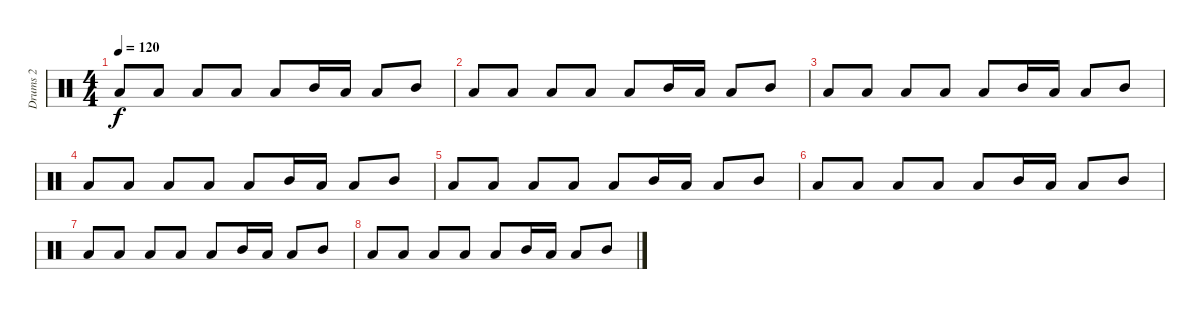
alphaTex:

\track ("Drums 2" "Drums 2") {instrument percussion}
\staff {score}
\articulation defaults
\ts (4 4)
\tempo 120
\clef neutral
\ks c "Low Tom (hit)".8{dy f} "Low Tom (hit)".8 "Low Tom (hit)".8 "Low Tom (hit)".8 "Low Tom (hit)".8 "Mid Tom (hit)".16 "Low Tom (hit)".16 "Low Tom (hit)".8 "Mid Tom (hit)".8
|
"Low Tom (hit)".8 "Low Tom (hit)".8 "Low Tom (hit)".8 "Low Tom (hit)".8 "Low Tom (hit)".8 "Mid Tom (hit)".16 "Low Tom (hit)".16 "Low Tom (hit)".8 "Mid Tom (hit)".8 |
"Low Tom (hit)".8 "Low Tom (hit)".8 "Low Tom (hit)".8 "Low Tom (hit)".8 "Low Tom (hit)".8 "Mid Tom (hit)".16 "Low Tom (hit)".16 "Low Tom (hit)".8 "Mid Tom (hit)".8 |
"Low Tom (hit)".8 "Low Tom (hit)".8 "Low Tom (hit)".8 "Low Tom (hit)".8 "Low Tom (hit)".8 "Mid Tom (hit)".16 "Low Tom (hit)".16 "Low Tom (hit)".8 "Mid Tom (hit)".8 |
"Low Tom (hit)".8 "Low Tom (hit)".8 "Low Tom (hit)".8 "Low Tom (hit)".8 "Low Tom (hit)".8 "Mid Tom (hit)".16 "Low Tom (hit)".16 "Low Tom (hit)".8 "Mid Tom (hit)".8 |
"Low Tom (hit)".8 "Low Tom (hit)".8 "Low Tom (hit)".8 "Low Tom (hit)".8 "Low Tom (hit)".8 "Mid Tom (hit)".16 "Low Tom (hit)".16 "Low Tom (hit)".8 "Mid Tom (hit)".8 |
"Low Tom (hit)".8 "Low Tom (hit)".8 "Low Tom (hit)".8 "Low Tom (hit)".8 "Low Tom (hit)".8 "Mid Tom (hit)".16 "Low Tom (hit)".16 "Low Tom (hit)".8 "Mid Tom (hit)".8 |
"Low Tom (hit)".8 "Low Tom (hit)".8 "Low Tom (hit)".8 "Low Tom (hit)".8 "Low Tom (hit)".8 "Mid Tom (hit)".16 "Low Tom (hit)".16 "Low Tom (hit)".8 "Mid Tom (hit)".8
